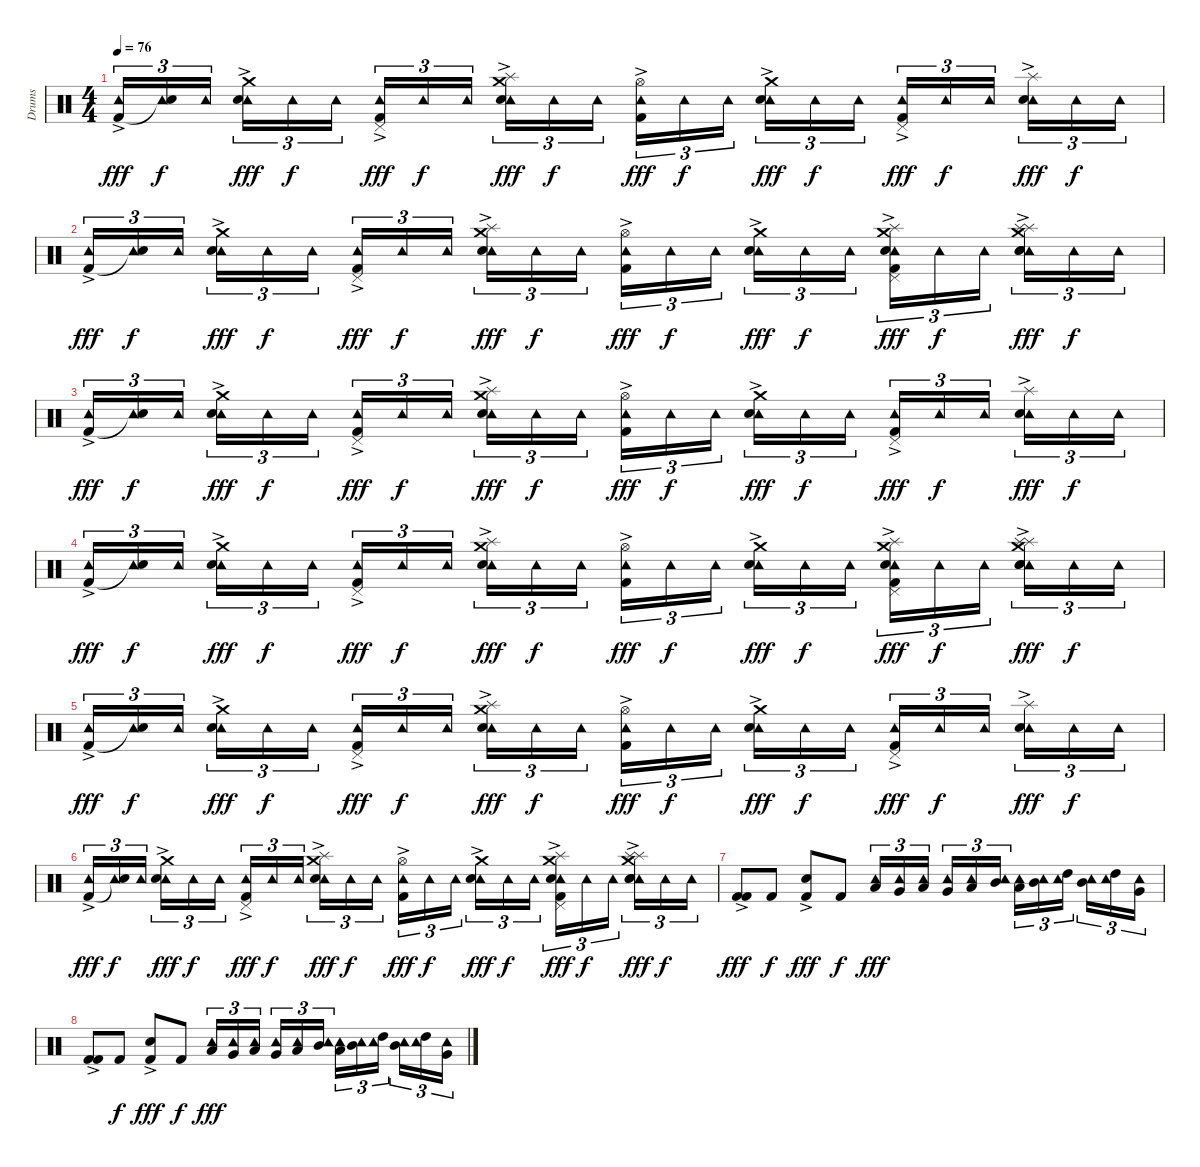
\track ("Drums" "Drums") {instrument percussion}
\staff {score}
\articulation defaults
\ts (4 4)
\tempo 76
\clef neutral
\ks c
("Tambourine (hit)"{ac} "Kick (hit) 2").16{tu (3 2) dy fff} ("Tambourine (hit)" "Snare (hit)"{t}).16{tu (3 2) dy f} "Tambourine (hit)".16{tu (3 2)} ("Tambourine (hit)"{ac} "Snare (hit) 2" "Crash medium (hit)").16{tu (3 2) dy fff} "Tambourine (hit)".16{tu (3 2) dy f} "Tambourine (hit)".16{tu (3 2)} ("Tambourine (hit)"{ac} "Kick (hit) 2" "Pedal Hi-Hat (hit)").16{tu (3 2) dy fff} "Tambourine (hit)".16{tu (3 2) dy f} "Tambourine (hit)".16{tu (3 2)} ("Tambourine (hit)"{ac} "Snare (hit) 2" "Splash (hit)" "Crash medium (hit)").16{tu (3 2) dy fff} "Tambourine (hit)".16{tu (3 2) dy f} "Tambourine (hit)".16{tu (3 2)} ("Tambourine (hit)"{ac} "Kick (hit) 2" "Hi-Hat (open)").16{tu (3 2) dy fff} "Tambourine (hit)".16{tu (3 2) dy f} "Tambourine (hit)".16{tu (3 2)} ("Tambourine (hit)"{ac} "Snare (hit) 2" "Crash medium (hit)").16{tu (3 2) dy fff} "Tambourine (hit)".16{tu (3 2) dy f} "Tambourine (hit)".16{tu (3 2)} ("Tambourine (hit)"{ac} "Kick (hit) 2" "Pedal Hi-Hat (hit)").16{tu (3 2) dy fff} "Tambourine (hit)".16{tu (3 2) dy f} "Tambourine (hit)".16{tu (3 2)} ("Tambourine (hit)"{ac} "Snare (hit) 2" "Splash (hit)").16{tu (3 2) dy fff} "Tambourine (hit)".16{tu (3 2) dy f} "Tambourine (hit)".16{tu (3 2)} |
("Tambourine (hit)"{ac} "Kick (hit) 2").16{tu (3 2) dy fff} ("Tambourine (hit)" "Snare (hit)"{t}).16{tu (3 2) dy f} "Tambourine (hit)".16{tu (3 2)} ("Tambourine (hit)"{ac} "Snare (hit) 2" "Crash medium (hit)").16{tu (3 2) dy fff} "Tambourine (hit)".16{tu (3 2) dy f} "Tambourine (hit)".16{tu (3 2)} ("Tambourine (hit)"{ac} "Kick (hit) 2" "Pedal Hi-Hat (hit)").16{tu (3 2) dy fff} "Tambourine (hit)".16{tu (3 2) dy f} "Tambourine (hit)".16{tu (3 2)} ("Tambourine (hit)"{ac} "Snare (hit) 2" "Splash (hit)" "Crash medium (hit)").16{tu (3 2) dy fff} "Tambourine (hit)".16{tu (3 2) dy f} "Tambourine (hit)".16{tu (3 2)} ("Tambourine (hit)"{ac} "Kick (hit) 2" "Hi-Hat (open)").16{tu (3 2) dy fff} "Tambourine (hit)".16{tu (3 2) dy f} "Tambourine (hit)".16{tu (3 2)} ("Tambourine (hit)"{ac} "Snare (hit) 2" "Crash medium (hit)").16{tu (3 2) dy fff} "Tambourine (hit)".16{tu (3 2) dy f} "Tambourine (hit)".16{tu (3 2)} ("Tambourine (hit)"{ac} "Kick (hit) 2" "Pedal Hi-Hat (hit)" "Snare (hit) 2" "Splash (hit)" "Crash medium (hit)").16{tu (3 2) dy fff} "Tambourine (hit)".16{tu (3 2) dy f} "Tambourine (hit)".16{tu (3 2)} ("Tambourine (hit)"{ac} "Snare (hit) 2" "Splash (hit)" "Snare (hit) 2" "Splash (hit)" "Crash medium (hit)").16{tu (3 2) dy fff} "Tambourine (hit)".16{tu (3 2) dy f} "Tambourine (hit)".16{tu (3 2)} |
("Tambourine (hit)"{ac} "Kick (hit) 2").16{tu (3 2) dy fff} ("Tambourine (hit)" "Snare (hit)"{t}).16{tu (3 2) dy f} "Tambourine (hit)".16{tu (3 2)} ("Tambourine (hit)"{ac} "Snare (hit) 2" "Crash medium (hit)").16{tu (3 2) dy fff} "Tambourine (hit)".16{tu (3 2) dy f} "Tambourine (hit)".16{tu (3 2)} ("Tambourine (hit)"{ac} "Kick (hit) 2" "Pedal Hi-Hat (hit)").16{tu (3 2) dy fff} "Tambourine (hit)".16{tu (3 2) dy f} "Tambourine (hit)".16{tu (3 2)} ("Tambourine (hit)"{ac} "Snare (hit) 2" "Splash (hit)" "Crash medium (hit)").16{tu (3 2) dy fff} "Tambourine (hit)".16{tu (3 2) dy f} "Tambourine (hit)".16{tu (3 2)} ("Tambourine (hit)"{ac} "Kick (hit) 2" "Hi-Hat (open)").16{tu (3 2) dy fff} "Tambourine (hit)".16{tu (3 2) dy f} "Tambourine (hit)".16{tu (3 2)} ("Tambourine (hit)"{ac} "Snare (hit) 2" "Crash medium (hit)").16{tu (3 2) dy fff} "Tambourine (hit)".16{tu (3 2) dy f} "Tambourine (hit)".16{tu (3 2)} ("Tambourine (hit)"{ac} "Kick (hit) 2" "Pedal Hi-Hat (hit)").16{tu (3 2) dy fff} "Tambourine (hit)".16{tu (3 2) dy f} "Tambourine (hit)".16{tu (3 2)} ("Tambourine (hit)"{ac} "Snare (hit) 2" "Splash (hit)").16{tu (3 2) dy fff} "Tambourine (hit)".16{tu (3 2) dy f} "Tambourine (hit)".16{tu (3 2)} |
("Tambourine (hit)"{ac} "Kick (hit) 2").16{tu (3 2) dy fff} ("Tambourine (hit)" "Snare (hit)"{t}).16{tu (3 2) dy f} "Tambourine (hit)".16{tu (3 2)} ("Tambourine (hit)"{ac} "Snare (hit) 2" "Crash medium (hit)").16{tu (3 2) dy fff} "Tambourine (hit)".16{tu (3 2) dy f} "Tambourine (hit)".16{tu (3 2)} ("Tambourine (hit)"{ac} "Kick (hit) 2" "Pedal Hi-Hat (hit)").16{tu (3 2) dy fff} "Tambourine (hit)".16{tu (3 2) dy f} "Tambourine (hit)".16{tu (3 2)} ("Tambourine (hit)"{ac} "Snare (hit) 2" "Splash (hit)" "Crash medium (hit)").16{tu (3 2) dy fff} "Tambourine (hit)".16{tu (3 2) dy f} "Tambourine (hit)".16{tu (3 2)} ("Tambourine (hit)"{ac} "Kick (hit) 2" "Hi-Hat (open)").16{tu (3 2) dy fff} "Tambourine (hit)".16{tu (3 2) dy f} "Tambourine (hit)".16{tu (3 2)} ("Tambourine (hit)"{ac} "Snare (hit) 2" "Crash medium (hit)").16{tu (3 2) dy fff} "Tambourine (hit)".16{tu (3 2) dy f} "Tambourine (hit)".16{tu (3 2)} ("Tambourine (hit)"{ac} "Kick (hit) 2" "Pedal Hi-Hat (hit)" "Snare (hit) 2" "Splash (hit)" "Crash medium (hit)").16{tu (3 2) dy fff} "Tambourine (hit)".16{tu (3 2) dy f} "Tambourine (hit)".16{tu (3 2)} ("Tambourine (hit)"{ac} "Snare (hit) 2" "Splash (hit)" "Snare (hit) 2" "Splash (hit)" "Crash medium (hit)").16{tu (3 2) dy fff} "Tambourine (hit)".16{tu (3 2) dy f} "Tambourine (hit)".16{tu (3 2)} |
("Tambourine (hit)"{ac} "Kick (hit) 2").16{tu (3 2) dy fff} ("Tambourine (hit)" "Snare (hit)"{t}).16{tu (3 2) dy f} "Tambourine (hit)".16{tu (3 2)} ("Tambourine (hit)"{ac} "Snare (hit) 2" "Crash medium (hit)").16{tu (3 2) dy fff} "Tambourine (hit)".16{tu (3 2) dy f} "Tambourine (hit)".16{tu (3 2)} ("Tambourine (hit)"{ac} "Kick (hit) 2" "Pedal Hi-Hat (hit)").16{tu (3 2) dy fff} "Tambourine (hit)".16{tu (3 2) dy f} "Tambourine (hit)".16{tu (3 2)} ("Tambourine (hit)"{ac} "Snare (hit) 2" "Splash (hit)" "Crash medium (hit)").16{tu (3 2) dy fff} "Tambourine (hit)".16{tu (3 2) dy f} "Tambourine (hit)".16{tu (3 2)} ("Tambourine (hit)"{ac} "Kick (hit) 2" "Hi-Hat (open)").16{tu (3 2) dy fff} "Tambourine (hit)".16{tu (3 2) dy f} "Tambourine (hit)".16{tu (3 2)} ("Tambourine (hit)"{ac} "Snare (hit) 2" "Crash medium (hit)").16{tu (3 2) dy fff} "Tambourine (hit)".16{tu (3 2) dy f} "Tambourine (hit)".16{tu (3 2)} ("Tambourine (hit)"{ac} "Kick (hit) 2" "Pedal Hi-Hat (hit)").16{tu (3 2) dy fff} "Tambourine (hit)".16{tu (3 2) dy f} "Tambourine (hit)".16{tu (3 2)} ("Tambourine (hit)"{ac} "Snare (hit) 2" "Splash (hit)").16{tu (3 2) dy fff} "Tambourine (hit)".16{tu (3 2) dy f} "Tambourine (hit)".16{tu (3 2)} |
("Tambourine (hit)"{ac} "Kick (hit) 2").16{tu (3 2) dy fff} ("Tambourine (hit)" "Snare (hit)"{t}).16{tu (3 2) dy f} "Tambourine (hit)".16{tu (3 2)} ("Tambourine (hit)"{ac} "Snare (hit) 2" "Crash medium (hit)").16{tu (3 2) dy fff} "Tambourine (hit)".16{tu (3 2) dy f} "Tambourine (hit)".16{tu (3 2)} ("Tambourine (hit)"{ac} "Kick (hit) 2" "Pedal Hi-Hat (hit)").16{tu (3 2) dy fff} "Tambourine (hit)".16{tu (3 2) dy f} "Tambourine (hit)".16{tu (3 2)} ("Tambourine (hit)"{ac} "Snare (hit) 2" "Splash (hit)" "Crash medium (hit)").16{tu (3 2) dy fff} "Tambourine (hit)".16{tu (3 2) dy f} "Tambourine (hit)".16{tu (3 2)} ("Tambourine (hit)"{ac} "Kick (hit) 2" "Hi-Hat (open)").16{tu (3 2) dy fff} "Tambourine (hit)".16{tu (3 2) dy f} "Tambourine (hit)".16{tu (3 2)} ("Tambourine (hit)"{ac} "Snare (hit) 2" "Crash medium (hit)").16{tu (3 2) dy fff} "Tambourine (hit)".16{tu (3 2) dy f} "Tambourine (hit)".16{tu (3 2)} ("Tambourine (hit)"{ac} "Kick (hit) 2" "Pedal Hi-Hat (hit)" "Snare (hit) 2" "Splash (hit)" "Crash medium (hit)").16{tu (3 2) dy fff} "Tambourine (hit)".16{tu (3 2) dy f} "Tambourine (hit)".16{tu (3 2)} ("Tambourine (hit)"{ac} "Snare (hit) 2" "Splash (hit)" "Snare (hit) 2" "Splash (hit)" "Crash medium (hit)").16{tu (3 2) dy fff} "Tambourine (hit)".16{tu (3 2) dy f} "Tambourine (hit)".16{tu (3 2)} |
("Kick (hit) 2"{ac} "Kick (hit) 2").8{dy fff} "Kick (hit) 2".8{dy f} ("Kick (hit) 2" "Snare (hit) 2"{ac}).8{dy fff} "Kick (hit) 2".8{dy f} ("Tambourine (hit)" "Low Floor Tom (hit)").16{tu (3 2) dy fff} ("Tambourine (hit)" "Very Low Tom (hit)").16{tu (3 2)} ("Tambourine (hit)" "Low Tom (hit)").16{tu (3 2)} ("Tambourine (hit)" "Very Low Tom (hit)").16{tu (3 2)} ("Tambourine (hit)" "Low Tom (hit)").16{tu (3 2)} ("Tambourine (hit)" "Mid Tom (hit)").16{tu (3 2)} ("Tambourine (hit)" "Low Tom (hit)").16{tu (3 2)} ("Tambourine (hit)" "Mid Tom (hit)").16{tu (3 2)} ("Tambourine (hit)" "High Tom (hit)").16{tu (3 2)} ("Tambourine (hit)" "Mid Tom (hit)").16{tu (3 2)} ("Tambourine (hit)" "High Tom (hit)").16{tu (3 2)} ("Tambourine (hit)" "Very Low Tom (hit)").16{tu (3 2)} |
("Kick (hit) 2"{ac} "Kick (hit) 2").8 "Kick (hit) 2".8{dy f} ("Kick (hit) 2" "Snare (hit) 2"{ac}).8{dy fff} "Kick (hit) 2".8{dy f} ("Tambourine (hit)" "Low Floor Tom (hit)").16{tu (3 2) dy fff} ("Tambourine (hit)" "Very Low Tom (hit)").16{tu (3 2)} ("Tambourine (hit)" "Low Tom (hit)").16{tu (3 2)} ("Tambourine (hit)" "Very Low Tom (hit)").16{tu (3 2)} ("Tambourine (hit)" "Low Tom (hit)").16{tu (3 2)} ("Tambourine (hit)" "Mid Tom (hit)").16{tu (3 2)} ("Tambourine (hit)" "Low Tom (hit)").16{tu (3 2)} ("Tambourine (hit)" "Mid Tom (hit)").16{tu (3 2)} ("Tambourine (hit)" "High Tom (hit)").16{tu (3 2)} ("Tambourine (hit)" "Mid Tom (hit)").16{tu (3 2)} ("Tambourine (hit)" "High Tom (hit)").16{tu (3 2)} ("Tambourine (hit)" "Very Low Tom (hit)").16{tu (3 2)}
